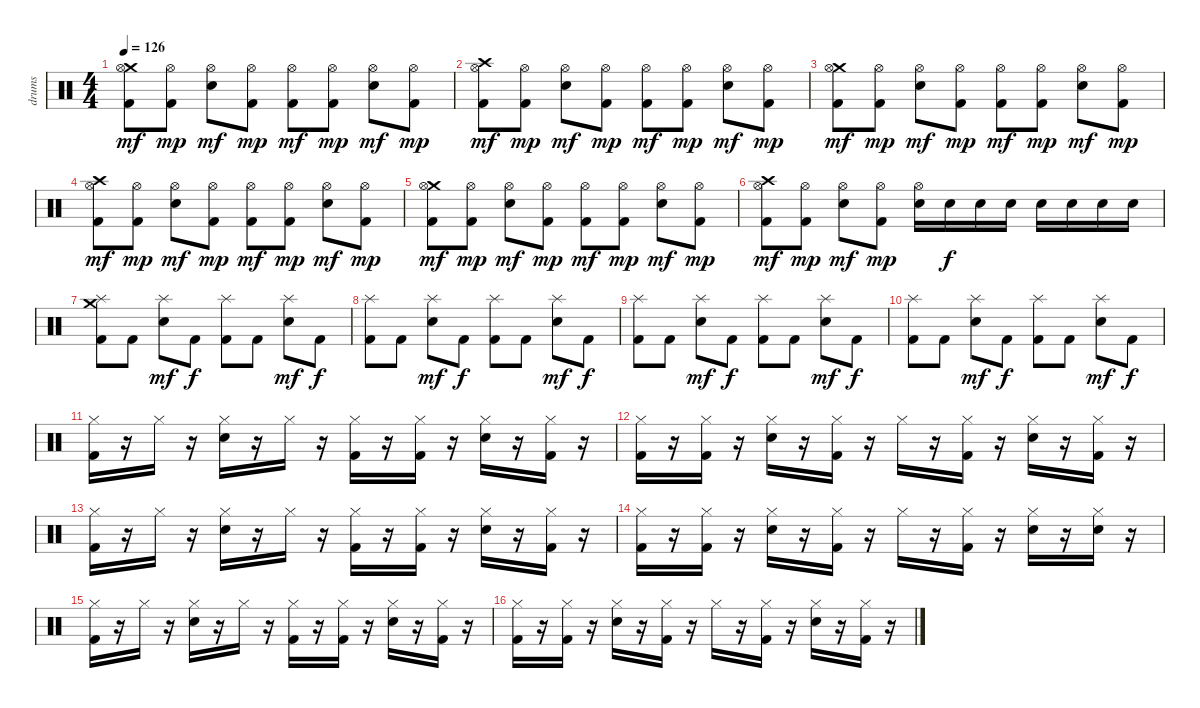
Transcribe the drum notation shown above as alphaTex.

\track ("drums" "drums") {instrument percussion}
\staff {score}
\articulation defaults
\ts (4 4)
\tempo 126
\clef neutral
\ks c
("Crash medium (hit)" "Kick (hit) 2" "Hi-Hat (open)").8{dy mf} ("Kick (hit) 2" "Hi-Hat (open)").8{dy mp} ("Snare (hit) 2" "Hi-Hat (open)").8{dy mf} ("Kick (hit) 2" "Hi-Hat (open)").8{dy mp} ("Kick (hit) 2" "Hi-Hat (open)").8{dy mf} ("Kick (hit) 2" "Hi-Hat (open)").8{dy mp} ("Snare (hit) 2" "Hi-Hat (open)").8{dy mf} ("Kick (hit) 2" "Hi-Hat (open)").8{dy mp} |
("Hi-Hat (open)" "Crash high (hit)" "Kick (hit) 2").8{dy mf} ("Hi-Hat (open)" "Kick (hit) 2").8{dy mp} ("Snare (hit) 2" "Hi-Hat (open)").8{dy mf} ("Kick (hit) 2" "Hi-Hat (open)").8{dy mp} ("Kick (hit) 2" "Hi-Hat (open)").8{dy mf} ("Kick (hit) 2" "Hi-Hat (open)").8{dy mp} ("Snare (hit) 2" "Hi-Hat (open)").8{dy mf} ("Kick (hit) 2" "Hi-Hat (open)").8{dy mp} |
("Crash medium (hit)" "Kick (hit) 2" "Hi-Hat (open)").8{dy mf} ("Kick (hit) 2" "Hi-Hat (open)").8{dy mp} ("Snare (hit) 2" "Hi-Hat (open)").8{dy mf} ("Kick (hit) 2" "Hi-Hat (open)").8{dy mp} ("Kick (hit) 2" "Hi-Hat (open)").8{dy mf} ("Kick (hit) 2" "Hi-Hat (open)").8{dy mp} ("Snare (hit) 2" "Hi-Hat (open)").8{dy mf} ("Kick (hit) 2" "Hi-Hat (open)").8{dy mp} |
("Hi-Hat (open)" "Crash high (hit)" "Kick (hit) 2").8{dy mf} ("Hi-Hat (open)" "Kick (hit) 2").8{dy mp} ("Snare (hit) 2" "Hi-Hat (open)").8{dy mf} ("Kick (hit) 2" "Hi-Hat (open)").8{dy mp} ("Kick (hit) 2" "Hi-Hat (open)").8{dy mf} ("Kick (hit) 2" "Hi-Hat (open)").8{dy mp} ("Snare (hit) 2" "Hi-Hat (open)").8{dy mf} ("Kick (hit) 2" "Hi-Hat (open)").8{dy mp} |
("Crash medium (hit)" "Kick (hit) 2" "Hi-Hat (open)").8{dy mf} ("Kick (hit) 2" "Hi-Hat (open)").8{dy mp} ("Snare (hit) 2" "Hi-Hat (open)").8{dy mf} ("Kick (hit) 2" "Hi-Hat (open)").8{dy mp} ("Kick (hit) 2" "Hi-Hat (open)").8{dy mf} ("Kick (hit) 2" "Hi-Hat (open)").8{dy mp} ("Snare (hit) 2" "Hi-Hat (open)").8{dy mf} ("Kick (hit) 2" "Hi-Hat (open)").8{dy mp} |
("Crash high (hit)" "Kick (hit) 2" "Hi-Hat (open)").8{dy mf} ("Kick (hit) 2" "Hi-Hat (open)").8{dy mp} ("Snare (hit) 2" "Hi-Hat (open)").8{dy mf} ("Kick (hit) 2" "Hi-Hat (open)").8{dy mp} ("Snare (hit) 2" "Hi-Hat (open)").16 "Snare (hit) 2".16{dy f} "Snare (hit) 2".16 "Snare (hit) 2".16 "Snare (hit) 2".16 "Snare (hit) 2".16 "Snare (hit) 2".16 "Snare (hit) 2".16 |
("Crash medium (hit)" "Kick (hit) 2" "Splash (hit)").8 "Kick (hit) 2".8 ("Snare (hit) 2" "Splash (hit)").8{dy mf} "Kick (hit) 2".8{dy f} ("Kick (hit) 2" "Splash (hit)").8 "Kick (hit) 2".8 ("Snare (hit) 2" "Splash (hit)").8{dy mf} "Kick (hit) 2".8{dy f} |
("Kick (hit) 2" "Splash (hit)").8 "Kick (hit) 2".8 ("Snare (hit) 2" "Splash (hit)").8{dy mf} "Kick (hit) 2".8{dy f} ("Kick (hit) 2" "Splash (hit)").8 "Kick (hit) 2".8 ("Snare (hit) 2" "Splash (hit)").8{dy mf} "Kick (hit) 2".8{dy f} |
("Kick (hit) 2" "Splash (hit)").8 "Kick (hit) 2".8 ("Snare (hit) 2" "Splash (hit)").8{dy mf} "Kick (hit) 2".8{dy f} ("Kick (hit) 2" "Splash (hit)").8 "Kick (hit) 2".8 ("Snare (hit) 2" "Splash (hit)").8{dy mf} "Kick (hit) 2".8{dy f} |
("Kick (hit) 2" "Splash (hit)").8 "Kick (hit) 2".8 ("Snare (hit) 2" "Splash (hit)").8{dy mf} "Kick (hit) 2".8{dy f} ("Kick (hit) 2" "Splash (hit)").8 "Kick (hit) 2".8 ("Snare (hit) 2" "Splash (hit)").8{dy mf} "Kick (hit) 2".8{dy f} |
("Kick (hit) 2" "Hi-Hat (closed)").16 r.16 "Hi-Hat (closed)".16 r.16 ("Hi-Hat (closed)" "Snare (hit) 2").16 r.16 "Hi-Hat (closed)".16 r.16 ("Kick (hit) 2" "Hi-Hat (closed)").16 r.16 ("Kick (hit) 2" "Hi-Hat (closed)").16 r.16 ("Snare (hit) 2" "Hi-Hat (closed)").16 r.16 ("Kick (hit) 2" "Hi-Hat (closed)").16 r.16 |
("Hi-Hat (closed)" "Kick (hit) 2").16 r.16 ("Hi-Hat (closed)" "Kick (hit) 2").16 r.16 ("Hi-Hat (closed)" "Snare (hit) 2").16 r.16 ("Hi-Hat (closed)" "Kick (hit) 2").16 r.16 "Hi-Hat (closed)".16 r.16 ("Hi-Hat (closed)" "Kick (hit) 2").16 r.16 ("Hi-Hat (closed)" "Snare (hit) 2").16 r.16 ("Hi-Hat (closed)" "Kick (hit) 2").16 r.16 |
("Kick (hit) 2" "Hi-Hat (closed)").16 r.16 "Hi-Hat (closed)".16 r.16 ("Hi-Hat (closed)" "Snare (hit) 2").16 r.16 "Hi-Hat (closed)".16 r.16 ("Kick (hit) 2" "Hi-Hat (closed)").16 r.16 ("Kick (hit) 2" "Hi-Hat (closed)").16 r.16 ("Snare (hit) 2" "Hi-Hat (closed)").16 r.16 ("Kick (hit) 2" "Hi-Hat (closed)").16 r.16 |
("Hi-Hat (closed)" "Kick (hit) 2").16 r.16 ("Hi-Hat (closed)" "Kick (hit) 2").16 r.16 ("Hi-Hat (closed)" "Snare (hit) 2").16 r.16 ("Hi-Hat (closed)" "Kick (hit) 2").16 r.16 "Hi-Hat (closed)".16 r.16 ("Hi-Hat (closed)" "Kick (hit) 2").16 r.16 ("Hi-Hat (closed)" "Snare (hit) 2").16 r.16 ("Hi-Hat (closed)" "Snare (hit) 2").16 r.16 |
("Kick (hit) 2" "Hi-Hat (closed)").16 r.16 "Hi-Hat (closed)".16 r.16 ("Hi-Hat (closed)" "Snare (hit) 2").16 r.16 "Hi-Hat (closed)".16 r.16 ("Kick (hit) 2" "Hi-Hat (closed)").16 r.16 ("Kick (hit) 2" "Hi-Hat (closed)").16 r.16 ("Snare (hit) 2" "Hi-Hat (closed)").16 r.16 ("Kick (hit) 2" "Hi-Hat (closed)").16 r.16 |
("Hi-Hat (closed)" "Kick (hit) 2").16 r.16 ("Hi-Hat (closed)" "Kick (hit) 2").16 r.16 ("Hi-Hat (closed)" "Snare (hit) 2").16 r.16 ("Hi-Hat (closed)" "Kick (hit) 2").16 r.16 "Hi-Hat (closed)".16 r.16 ("Hi-Hat (closed)" "Kick (hit) 2").16 r.16 ("Hi-Hat (closed)" "Snare (hit) 2").16 r.16 ("Hi-Hat (closed)" "Kick (hit) 2").16 r.16
